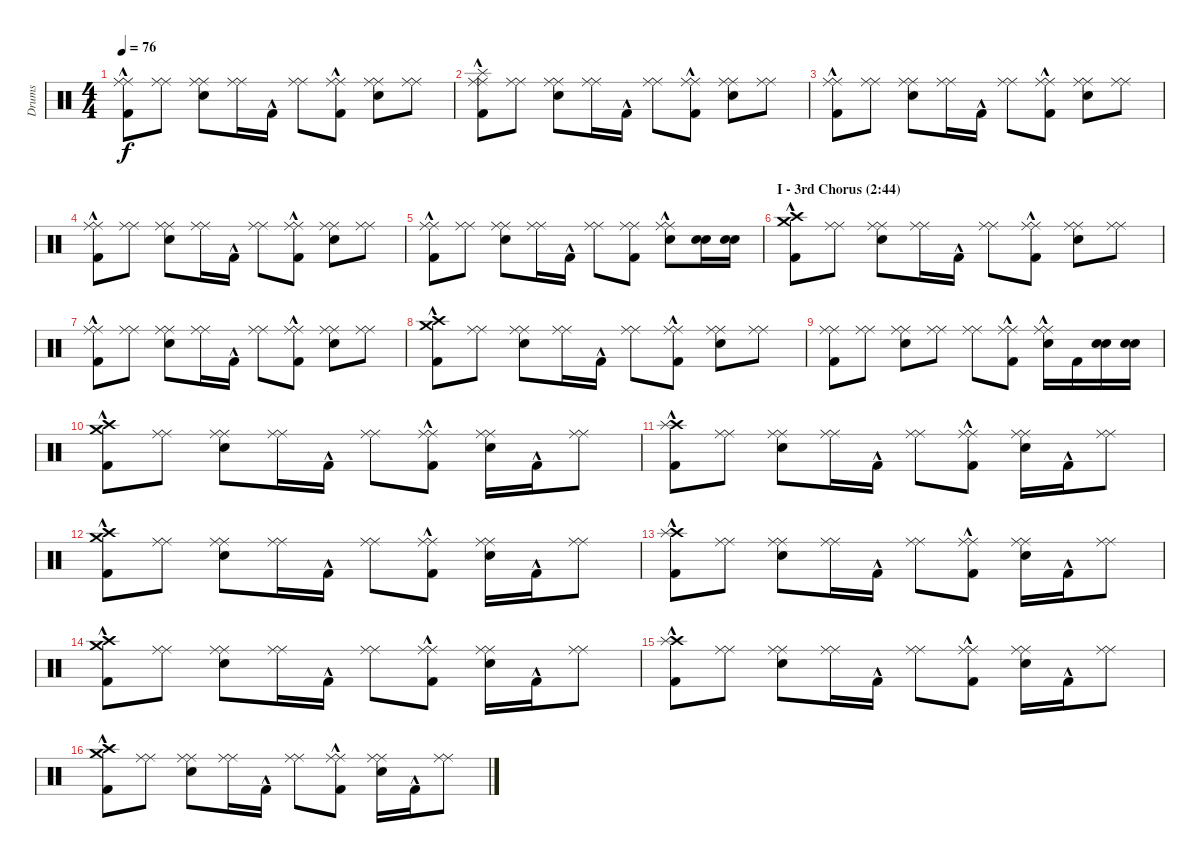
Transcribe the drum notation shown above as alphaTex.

\track ("Drums" "Drums") {instrument percussion}
\staff {score}
\articulation defaults
\ts (4 4)
\tempo 76
\clef neutral
\ks c
("Kick (hit) 2"{hac} "Ride (middle)" "Ride (middle)").8{dy f} ("Ride (middle)" "Ride (middle)").8 ("Snare (hit) 2" "Ride (middle)" "Ride (middle)").8 ("Ride (middle)" "Ride (middle)").16 "Kick (hit) 2"{hac}.16 ("Ride (middle)" "Ride (middle)").8 ("Kick (hit) 2"{hac} "Ride (middle)" "Ride (middle)").8 ("Snare (hit) 2" "Ride (middle)" "Ride (middle)").8 ("Ride (middle)" "Ride (middle)").8 |
("Kick (hit) 2"{hac} "Ride (middle)" "Ride (middle)" "Splash (hit)").8 ("Ride (middle)" "Ride (middle)").8 ("Snare (hit) 2" "Ride (middle)" "Ride (middle)").8 ("Ride (middle)" "Ride (middle)").16 "Kick (hit) 2"{hac}.16 ("Ride (middle)" "Ride (middle)").8 ("Kick (hit) 2"{hac} "Ride (middle)" "Ride (middle)").8 ("Snare (hit) 2" "Ride (middle)" "Ride (middle)").8 ("Ride (middle)" "Ride (middle)").8 |
("Kick (hit) 2"{hac} "Ride (middle)" "Ride (middle)").8 ("Ride (middle)" "Ride (middle)").8 ("Snare (hit) 2" "Ride (middle)" "Ride (middle)").8 ("Ride (middle)" "Ride (middle)").16 "Kick (hit) 2"{hac}.16 ("Ride (middle)" "Ride (middle)").8 ("Kick (hit) 2"{hac} "Ride (middle)" "Ride (middle)").8 ("Snare (hit) 2" "Ride (middle)" "Ride (middle)").8 ("Ride (middle)" "Ride (middle)").8 |
("Kick (hit) 2"{hac} "Ride (middle)" "Ride (middle)").8 ("Ride (middle)" "Ride (middle)").8 ("Snare (hit) 2" "Ride (middle)" "Ride (middle)").8 ("Ride (middle)" "Ride (middle)").16 "Kick (hit) 2"{hac}.16 ("Ride (middle)" "Ride (middle)").8 ("Kick (hit) 2"{hac} "Ride (middle)" "Ride (middle)").8 ("Snare (hit) 2" "Ride (middle)" "Ride (middle)").8 ("Ride (middle)" "Ride (middle)").8 |
("Kick (hit) 2"{hac} "Ride (middle)" "Ride (middle)").8 ("Ride (middle)" "Ride (middle)").8 ("Snare (hit) 2" "Ride (middle)" "Ride (middle)").8 ("Ride (middle)" "Ride (middle)").16 "Kick (hit) 2"{hac}.16 ("Ride (middle)" "Ride (middle)").8 ("Kick (hit) 2" "Ride (middle)" "Ride (middle)").8 ("Snare (hit) 2" "Ride (middle)"{hac} "Ride (middle)"{hac}).8 ("Electric Snare (hit)" "Snare (hit) 2").16 ("Electric Snare (hit)" "Snare (hit) 2").16 |
\section ("" "I - 3rd Chorus (2:44)")
("Kick (hit) 2"{hac} "Crash high (hit)" "Crash medium (hit)").8 ("Ride (middle)" "Ride (middle)").8 ("Snare (hit) 2" "Ride (middle)" "Ride (middle)").8 ("Ride (middle)" "Ride (middle)").16 "Kick (hit) 2"{hac}.16 ("Ride (middle)" "Ride (middle)").8 ("Kick (hit) 2"{hac} "Ride (middle)" "Ride (middle)").8 ("Snare (hit) 2" "Ride (middle)" "Ride (middle)").8 ("Ride (middle)" "Ride (middle)").8 |
("Kick (hit) 2"{hac} "Ride (middle)" "Ride (middle)").8 ("Ride (middle)" "Ride (middle)").8 ("Snare (hit) 2" "Ride (middle)" "Ride (middle)").8 ("Ride (middle)" "Ride (middle)").16 "Kick (hit) 2"{hac}.16 ("Ride (middle)" "Ride (middle)").8 ("Kick (hit) 2"{hac} "Ride (middle)" "Ride (middle)").8 ("Snare (hit) 2" "Ride (middle)" "Ride (middle)").8 ("Ride (middle)" "Ride (middle)").8 |
("Kick (hit) 2"{hac} "Crash high (hit)" "Crash medium (hit)").8 ("Ride (middle)" "Ride (middle)").8 ("Snare (hit) 2" "Ride (middle)" "Ride (middle)").8 ("Ride (middle)" "Ride (middle)").16 "Kick (hit) 2"{hac}.16 ("Ride (middle)" "Ride (middle)").8 ("Kick (hit) 2"{hac} "Ride (middle)" "Ride (middle)").8 ("Snare (hit) 2" "Ride (middle)" "Ride (middle)").8 ("Ride (middle)" "Ride (middle)").8 |
("Kick (hit) 2" "Ride (middle)" "Ride (middle)").8 ("Ride (middle)" "Ride (middle)").8 ("Snare (hit) 2" "Ride (middle)" "Ride (middle)").8 ("Ride (middle)" "Ride (middle)").8 ("Ride (middle)" "Ride (middle)").8 ("Kick (hit) 2"{hac} "Ride (middle)" "Ride (middle)").8 ("Snare (hit) 2" "Ride (middle)"{hac} "Ride (middle)"{hac}).16 "Kick (hit) 2".16 ("Electric Snare (hit)" "Snare (hit) 2").16 ("Electric Snare (hit)" "Snare (hit) 2").16 |
("Kick (hit) 2"{hac} "Crash high (hit)" "Crash medium (hit)").8 ("Ride (middle)" "Ride (middle)").8 ("Snare (hit) 2" "Ride (middle)" "Ride (middle)").8 ("Ride (middle)" "Ride (middle)").16 "Kick (hit) 2"{hac}.16 ("Ride (middle)" "Ride (middle)").8 ("Kick (hit) 2"{hac} "Ride (middle)" "Ride (middle)").8 ("Snare (hit) 2" "Ride (middle)" "Ride (middle)").16 "Kick (hit) 2"{hac}.16 ("Ride (middle)" "Ride (middle)").8 |
("Kick (hit) 2"{hac} "Crash high (hit)" "Splash (hit)").8 ("Ride (middle)" "Ride (middle)").8 ("Snare (hit) 2" "Ride (middle)" "Ride (middle)").8 ("Ride (middle)" "Ride (middle)").16 "Kick (hit) 2"{hac}.16 ("Ride (middle)" "Ride (middle)").8 ("Kick (hit) 2"{hac} "Ride (middle)" "Ride (middle)").8 ("Snare (hit) 2" "Ride (middle)" "Ride (middle)").16 "Kick (hit) 2"{hac}.16 ("Ride (middle)" "Ride (middle)").8 |
("Kick (hit) 2"{hac} "Crash high (hit)" "Crash medium (hit)").8 ("Ride (middle)" "Ride (middle)").8 ("Snare (hit) 2" "Ride (middle)" "Ride (middle)").8 ("Ride (middle)" "Ride (middle)").16 "Kick (hit) 2"{hac}.16 ("Ride (middle)" "Ride (middle)").8 ("Kick (hit) 2"{hac} "Ride (middle)" "Ride (middle)").8 ("Snare (hit) 2" "Ride (middle)" "Ride (middle)").16 "Kick (hit) 2"{hac}.16 ("Ride (middle)" "Ride (middle)").8 |
("Kick (hit) 2"{hac} "Crash high (hit)" "Splash (hit)").8 ("Ride (middle)" "Ride (middle)").8 ("Snare (hit) 2" "Ride (middle)" "Ride (middle)").8 ("Ride (middle)" "Ride (middle)").16 "Kick (hit) 2"{hac}.16 ("Ride (middle)" "Ride (middle)").8 ("Kick (hit) 2"{hac} "Ride (middle)" "Ride (middle)").8 ("Snare (hit) 2" "Ride (middle)" "Ride (middle)").16 "Kick (hit) 2"{hac}.16 ("Ride (middle)" "Ride (middle)").8 |
("Kick (hit) 2"{hac} "Crash high (hit)" "Crash medium (hit)").8 ("Ride (middle)" "Ride (middle)").8 ("Snare (hit) 2" "Ride (middle)" "Ride (middle)").8 ("Ride (middle)" "Ride (middle)").16 "Kick (hit) 2"{hac}.16 ("Ride (middle)" "Ride (middle)").8 ("Kick (hit) 2"{hac} "Ride (middle)" "Ride (middle)").8 ("Snare (hit) 2" "Ride (middle)" "Ride (middle)").16 "Kick (hit) 2"{hac}.16 ("Ride (middle)" "Ride (middle)").8 |
("Kick (hit) 2"{hac} "Crash high (hit)" "Splash (hit)").8 ("Ride (middle)" "Ride (middle)").8 ("Snare (hit) 2" "Ride (middle)" "Ride (middle)").8 ("Ride (middle)" "Ride (middle)").16 "Kick (hit) 2"{hac}.16 ("Ride (middle)" "Ride (middle)").8 ("Kick (hit) 2"{hac} "Ride (middle)" "Ride (middle)").8 ("Snare (hit) 2" "Ride (middle)" "Ride (middle)").16 "Kick (hit) 2"{hac}.16 ("Ride (middle)" "Ride (middle)").8 |
("Kick (hit) 2"{hac} "Crash high (hit)" "Crash medium (hit)").8 ("Ride (middle)" "Ride (middle)").8 ("Snare (hit) 2" "Ride (middle)" "Ride (middle)").8 ("Ride (middle)" "Ride (middle)").16 "Kick (hit) 2"{hac}.16 ("Ride (middle)" "Ride (middle)").8 ("Kick (hit) 2"{hac} "Ride (middle)" "Ride (middle)").8 ("Snare (hit) 2" "Ride (middle)" "Ride (middle)").16 "Kick (hit) 2"{hac}.16 ("Ride (middle)" "Ride (middle)").8
